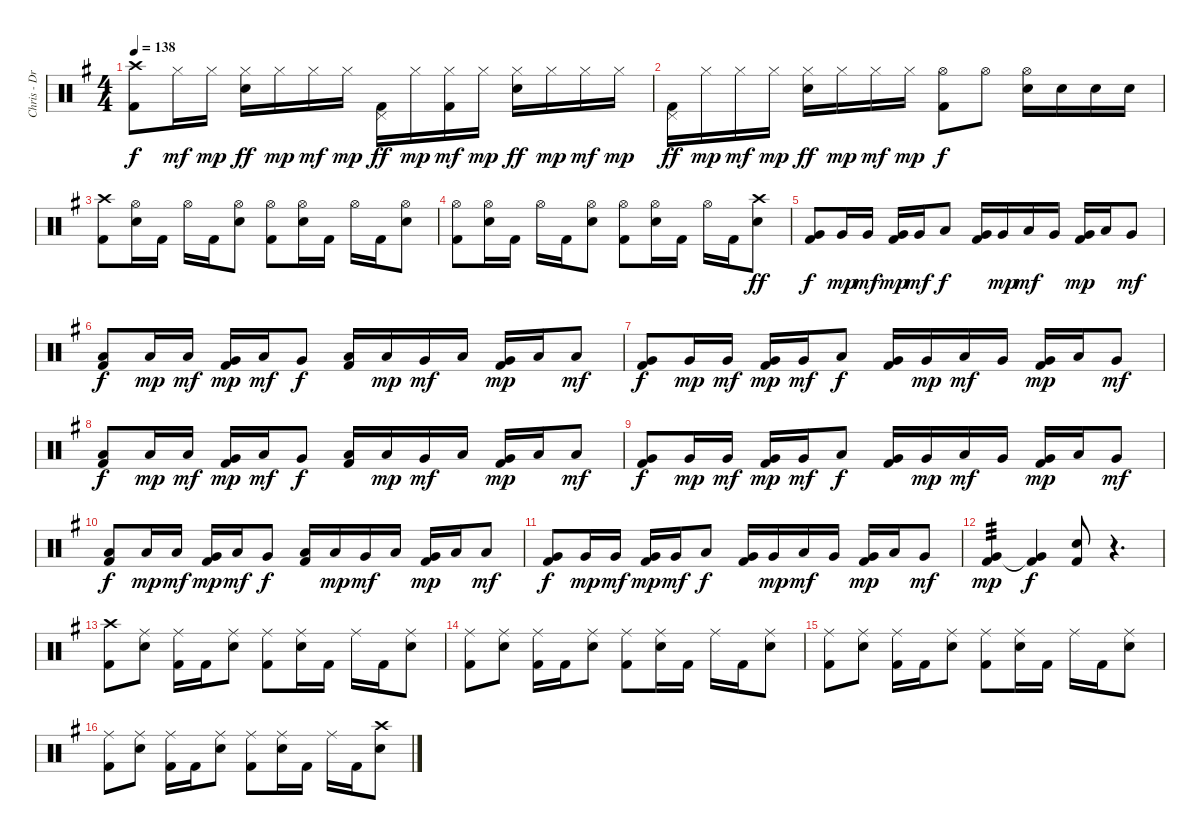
\track ("Chris - Drums" "Chris - Dr") {instrument percussion}
\staff {score}
\articulation defaults
\ts (4 4)
\tempo 138
\clef neutral
\ks g
("Crash high (hit)" "Kick (hit) 2").8{dy f} "Hi-Hat (closed)".16{dy mf} "Hi-Hat (closed)".16{dy mp} ("Hi-Hat (closed)" "Electric Snare (hit)").16{dy ff} "Hi-Hat (closed)".16{dy mp} "Hi-Hat (closed)".16{dy mf} "Hi-Hat (closed)".16{dy mp} ("Pedal Hi-Hat (hit)" "Kick (hit) 2").16{dy ff} "Hi-Hat (closed)".16{dy mp} ("Hi-Hat (closed)" "Kick (hit) 2").16{dy mf} "Hi-Hat (closed)".16{dy mp} ("Hi-Hat (closed)" "Electric Snare (hit)").16{dy ff} "Hi-Hat (closed)".16{dy mp} "Hi-Hat (closed)".16{dy mf} "Hi-Hat (closed)".16{dy mp} |
("Pedal Hi-Hat (hit)" "Kick (hit) 2").16{dy ff} "Hi-Hat (closed)".16{dy mp} "Hi-Hat (closed)".16{dy mf} "Hi-Hat (closed)".16{dy mp} ("Hi-Hat (closed)" "Electric Snare (hit)").16{dy ff} "Hi-Hat (closed)".16{dy mp} "Hi-Hat (closed)".16{dy mf} "Hi-Hat (closed)".16{dy mp} ("Hi-Hat (open)" "Kick (hit) 2").8{dy f} "Hi-Hat (open)".8 ("Hi-Hat (open)" "Electric Snare (hit)").16 "Electric Snare (hit)".16 "Electric Snare (hit)".16 "Electric Snare (hit)".16 |
("Crash high (hit)" "Kick (hit) 2").8 ("Hi-Hat (open)" "Electric Snare (hit)").16 "Kick (hit) 2".16 "Hi-Hat (open)".16 "Kick (hit) 2".16 ("Hi-Hat (open)" "Electric Snare (hit)").8 ("Hi-Hat (open)" "Kick (hit) 2").8 ("Hi-Hat (open)" "Electric Snare (hit)").16 "Kick (hit) 2".16 "Hi-Hat (open)".16 "Kick (hit) 2".16 ("Hi-Hat (open)" "Electric Snare (hit)").8 |
("Hi-Hat (open)" "Kick (hit) 2").8 ("Hi-Hat (open)" "Electric Snare (hit)").16 "Kick (hit) 2".16 "Hi-Hat (open)".16 "Kick (hit) 2".16 ("Hi-Hat (open)" "Electric Snare (hit)").8 ("Hi-Hat (open)" "Kick (hit) 2").8 ("Hi-Hat (open)" "Electric Snare (hit)").16 "Kick (hit) 2".16 "Hi-Hat (open)".16 "Kick (hit) 2".16 ("Crash high (hit)" "Electric Snare (hit)").8{dy ff} |
("Very Low Tom (hit)" "Kick (hit) 2").8{dy f} "Very Low Tom (hit)".16{dy mp} "Very Low Tom (hit)".16{dy mf} ("Very Low Tom (hit)" "Kick (hit) 2").16{dy mp} "Very Low Tom (hit)".16{dy mf} "Low Floor Tom (hit)".8{dy f} ("Very Low Tom (hit)" "Kick (hit) 2").16 "Very Low Tom (hit)".16{dy mp} "Low Floor Tom (hit)".16{dy mf} "Very Low Tom (hit)".16 ("Very Low Tom (hit)" "Kick (hit) 2").16{dy mp} "Low Floor Tom (hit)".16 "Very Low Tom (hit)".8{dy mf} |
("Low Tom (hit)" "Kick (hit) 2").8{dy f} "Low Tom (hit)".16{dy mp} "Low Tom (hit)".16{dy mf} ("Very Low Tom (hit)" "Kick (hit) 2").16{dy mp} "Low Tom (hit)".16{dy mf} "Very Low Tom (hit)".8{dy f} ("Low Tom (hit)" "Kick (hit) 2").16 "Low Tom (hit)".16{dy mp} "Very Low Tom (hit)".16{dy mf} "Low Tom (hit)".16 ("Very Low Tom (hit)" "Kick (hit) 2").16{dy mp} "Low Floor Tom (hit)".16 "Low Tom (hit)".8{dy mf} |
("Very Low Tom (hit)" "Kick (hit) 2").8{dy f} "Very Low Tom (hit)".16{dy mp} "Very Low Tom (hit)".16{dy mf} ("Very Low Tom (hit)" "Kick (hit) 2").16{dy mp} "Very Low Tom (hit)".16{dy mf} "Low Floor Tom (hit)".8{dy f} ("Very Low Tom (hit)" "Kick (hit) 2").16 "Very Low Tom (hit)".16{dy mp} "Low Floor Tom (hit)".16{dy mf} "Very Low Tom (hit)".16 ("Very Low Tom (hit)" "Kick (hit) 2").16{dy mp} "Low Floor Tom (hit)".16 "Very Low Tom (hit)".8{dy mf} |
("Low Tom (hit)" "Kick (hit) 2").8{dy f} "Low Tom (hit)".16{dy mp} "Low Tom (hit)".16{dy mf} ("Very Low Tom (hit)" "Kick (hit) 2").16{dy mp} "Low Tom (hit)".16{dy mf} "Very Low Tom (hit)".8{dy f} ("Low Tom (hit)" "Kick (hit) 2").16 "Low Tom (hit)".16{dy mp} "Very Low Tom (hit)".16{dy mf} "Low Tom (hit)".16 ("Very Low Tom (hit)" "Kick (hit) 2").16{dy mp} "Low Floor Tom (hit)".16 "Low Tom (hit)".8{dy mf} |
("Very Low Tom (hit)" "Kick (hit) 2").8{dy f} "Very Low Tom (hit)".16{dy mp} "Very Low Tom (hit)".16{dy mf} ("Very Low Tom (hit)" "Kick (hit) 2").16{dy mp} "Very Low Tom (hit)".16{dy mf} "Low Floor Tom (hit)".8{dy f} ("Very Low Tom (hit)" "Kick (hit) 2").16 "Very Low Tom (hit)".16{dy mp} "Low Floor Tom (hit)".16{dy mf} "Very Low Tom (hit)".16 ("Very Low Tom (hit)" "Kick (hit) 2").16{dy mp} "Low Floor Tom (hit)".16 "Very Low Tom (hit)".8{dy mf} |
("Low Tom (hit)" "Kick (hit) 2").8{dy f} "Low Tom (hit)".16{dy mp} "Low Tom (hit)".16{dy mf} ("Very Low Tom (hit)" "Kick (hit) 2").16{dy mp} "Low Tom (hit)".16{dy mf} "Very Low Tom (hit)".8{dy f} ("Low Tom (hit)" "Kick (hit) 2").16 "Low Tom (hit)".16{dy mp} "Very Low Tom (hit)".16{dy mf} "Low Tom (hit)".16 ("Very Low Tom (hit)" "Kick (hit) 2").16{dy mp} "Low Floor Tom (hit)".16 "Low Tom (hit)".8{dy mf} |
("Very Low Tom (hit)" "Kick (hit) 2").8{dy f} "Very Low Tom (hit)".16{dy mp} "Very Low Tom (hit)".16{dy mf} ("Very Low Tom (hit)" "Kick (hit) 2").16{dy mp} "Very Low Tom (hit)".16{dy mf} "Low Floor Tom (hit)".8{dy f} ("Very Low Tom (hit)" "Kick (hit) 2").16 "Very Low Tom (hit)".16{dy mp} "Low Floor Tom (hit)".16{dy mf} "Very Low Tom (hit)".16 ("Very Low Tom (hit)" "Kick (hit) 2").16{dy mp} "Low Floor Tom (hit)".16 "Very Low Tom (hit)".8{dy mf} |
("Very Low Tom (hit)" "Kick (hit) 2").4{tp 3 dy mp} ("Very Low Tom (hit)"{t} "Kick (hit) 2").4{dy f} ("Electric Snare (hit)" "Kick (hit) 2").8 r.4{d} |
("Crash high (hit)" "Kick (hit) 2").8 ("Ride (middle)" "Electric Snare (hit)").8 ("Ride (middle)" "Kick (hit) 2").16 "Kick (hit) 2".16 ("Ride (middle)" "Electric Snare (hit)").8 ("Ride (middle)" "Kick (hit) 2").8 ("Ride (middle)" "Electric Snare (hit)").16 "Kick (hit) 2".16 "Ride (middle)".16 "Kick (hit) 2".16 ("Ride (middle)" "Electric Snare (hit)").8 |
("Ride (middle)" "Kick (hit) 2").8 ("Ride (middle)" "Electric Snare (hit)").8 ("Ride (middle)" "Kick (hit) 2").16 "Kick (hit) 2".16 ("Ride (middle)" "Electric Snare (hit)").8 ("Ride (middle)" "Kick (hit) 2").8 ("Ride (middle)" "Electric Snare (hit)").16 "Kick (hit) 2".16 "Ride (middle)".16 "Kick (hit) 2".16 ("Ride (middle)" "Electric Snare (hit)").8 |
("Ride (middle)" "Kick (hit) 2").8 ("Ride (middle)" "Electric Snare (hit)").8 ("Ride (middle)" "Kick (hit) 2").16 "Kick (hit) 2".16 ("Ride (middle)" "Electric Snare (hit)").8 ("Ride (middle)" "Kick (hit) 2").8 ("Ride (middle)" "Electric Snare (hit)").16 "Kick (hit) 2".16 "Ride (middle)".16 "Kick (hit) 2".16 ("Ride (middle)" "Electric Snare (hit)").8 |
("Ride (middle)" "Kick (hit) 2").8 ("Ride (middle)" "Electric Snare (hit)").8 ("Ride (middle)" "Kick (hit) 2").16 "Kick (hit) 2".16 ("Ride (middle)" "Electric Snare (hit)").8 ("Ride (middle)" "Kick (hit) 2").8 ("Ride (middle)" "Electric Snare (hit)").16 "Kick (hit) 2".16 "Ride (middle)".16 "Kick (hit) 2".16 ("Crash high (hit)" "Electric Snare (hit)").8
